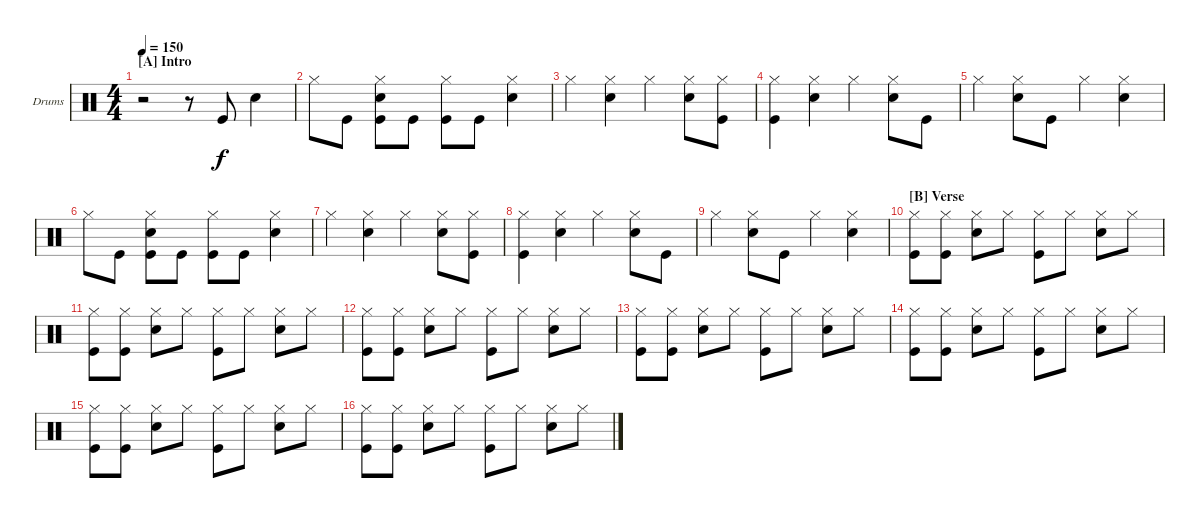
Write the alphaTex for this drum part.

\defaultSystemsLayout 4
\bracketExtendMode groupsimilarinstruments
\firstSystemTrackNameOrientation horizontal
\otherSystemsTrackNameOrientation horizontal
\track ("Drums" "Drums") {instrument percussion}
\staff {score}
\articulation defaults
\ts (4 4)
\section ("A" "Intro")
\tempo 150
\clef neutral
\scale
0.472222
\ks c
r.2{dy f} r.8 "Kick (hit)".8 "Snare (hit) 2".4 |
\scale
0.263889 "Hi-Hat (closed)".8 "Kick (hit)".8 ("Snare (hit) 2" "Hi-Hat (closed)" "Kick (hit)").8 "Kick (hit)".8 ("Kick (hit)" "Hi-Hat (closed)").8 "Kick (hit)".8 ("Hi-Hat (closed)" "Snare (hit) 2").4 |
\scale
0.263889 "Hi-Hat (closed)".4 ("Snare (hit) 2" "Hi-Hat (closed)").4 "Hi-Hat (closed)".4 ("Snare (hit) 2" "Hi-Hat (closed)").8 ("Kick (hit)" "Hi-Hat (closed)").8 |
\scale
0.333333 ("Hi-Hat (closed)" "Kick (hit)").4 ("Snare (hit) 2" "Hi-Hat (closed)").4 "Hi-Hat (closed)".4 ("Snare (hit) 2" "Hi-Hat (closed)").8 "Kick (hit)".8 |
\scale
0.333333 "Hi-Hat (closed)".4 ("Snare (hit) 2" "Hi-Hat (closed)").8 "Kick (hit)".8 "Hi-Hat (closed)".4 ("Snare (hit) 2" "Hi-Hat (closed)").4 |
\scale
0.333333 "Hi-Hat (closed)".8 "Kick (hit)".8 ("Snare (hit) 2" "Hi-Hat (closed)" "Kick (hit)").8 "Kick (hit)".8 ("Kick (hit)" "Hi-Hat (closed)").8 "Kick (hit)".8 ("Hi-Hat (closed)" "Snare (hit) 2").4 |
\scale
0.333333 "Hi-Hat (closed)".4 ("Snare (hit) 2" "Hi-Hat (closed)").4 "Hi-Hat (closed)".4 ("Snare (hit) 2" "Hi-Hat (closed)").8 ("Kick (hit)" "Hi-Hat (closed)").8 |
\scale
0.333333 ("Hi-Hat (closed)" "Kick (hit)").4 ("Snare (hit) 2" "Hi-Hat (closed)").4 "Hi-Hat (closed)".4 ("Snare (hit) 2" "Hi-Hat (closed)").8 "Kick (hit)".8 |
\scale
0.333333 "Hi-Hat (closed)".4 ("Snare (hit) 2" "Hi-Hat (closed)").8 "Kick (hit)".8 "Hi-Hat (closed)".4 ("Snare (hit) 2" "Hi-Hat (closed)").4 |
\section ("B" "Verse")
\scale
0.333333 ("Kick (hit)" "Hi-Hat (closed)").8 ("Kick (hit)" "Hi-Hat (closed)").8 ("Hi-Hat (closed)" "Snare (hit) 2").8 "Hi-Hat (closed)".8 ("Kick (hit)" "Hi-Hat (closed)").8 "Hi-Hat (closed)".8 ("Hi-Hat (closed)" "Snare (hit) 2").8 "Hi-Hat (closed)".8 |
\scale
0.333333 ("Kick (hit)" "Hi-Hat (closed)").8 ("Kick (hit)" "Hi-Hat (closed)").8 ("Hi-Hat (closed)" "Snare (hit) 2").8 "Hi-Hat (closed)".8 ("Kick (hit)" "Hi-Hat (closed)").8 "Hi-Hat (closed)".8 ("Hi-Hat (closed)" "Snare (hit) 2").8 "Hi-Hat (closed)".8 |
\scale
0.333333 ("Kick (hit)" "Hi-Hat (closed)").8 ("Kick (hit)" "Hi-Hat (closed)").8 ("Hi-Hat (closed)" "Snare (hit) 2").8 "Hi-Hat (closed)".8 ("Kick (hit)" "Hi-Hat (closed)").8 "Hi-Hat (closed)".8 ("Hi-Hat (closed)" "Snare (hit) 2").8 "Hi-Hat (closed)".8 |
\scale
0.333333 ("Kick (hit)" "Hi-Hat (closed)").8 ("Kick (hit)" "Hi-Hat (closed)").8 ("Hi-Hat (closed)" "Snare (hit) 2").8 "Hi-Hat (closed)".8 ("Kick (hit)" "Hi-Hat (closed)").8 "Hi-Hat (closed)".8 ("Hi-Hat (closed)" "Snare (hit) 2").8 "Hi-Hat (closed)".8 |
\scale
0.333333 ("Kick (hit)" "Hi-Hat (closed)").8 ("Kick (hit)" "Hi-Hat (closed)").8 ("Hi-Hat (closed)" "Snare (hit) 2").8 "Hi-Hat (closed)".8 ("Kick (hit)" "Hi-Hat (closed)").8 "Hi-Hat (closed)".8 ("Hi-Hat (closed)" "Snare (hit) 2").8 "Hi-Hat (closed)".8 |
\scale
0.333333 ("Kick (hit)" "Hi-Hat (closed)").8 ("Kick (hit)" "Hi-Hat (closed)").8 ("Hi-Hat (closed)" "Snare (hit) 2").8 "Hi-Hat (closed)".8 ("Kick (hit)" "Hi-Hat (closed)").8 "Hi-Hat (closed)".8 ("Hi-Hat (closed)" "Snare (hit) 2").8 "Hi-Hat (closed)".8 |
\scale
0.333333 ("Kick (hit)" "Hi-Hat (closed)").8 ("Kick (hit)" "Hi-Hat (closed)").8 ("Hi-Hat (closed)" "Snare (hit) 2").8 "Hi-Hat (closed)".8 ("Kick (hit)" "Hi-Hat (closed)").8 "Hi-Hat (closed)".8 ("Hi-Hat (closed)" "Snare (hit) 2").8 "Hi-Hat (closed)".8
